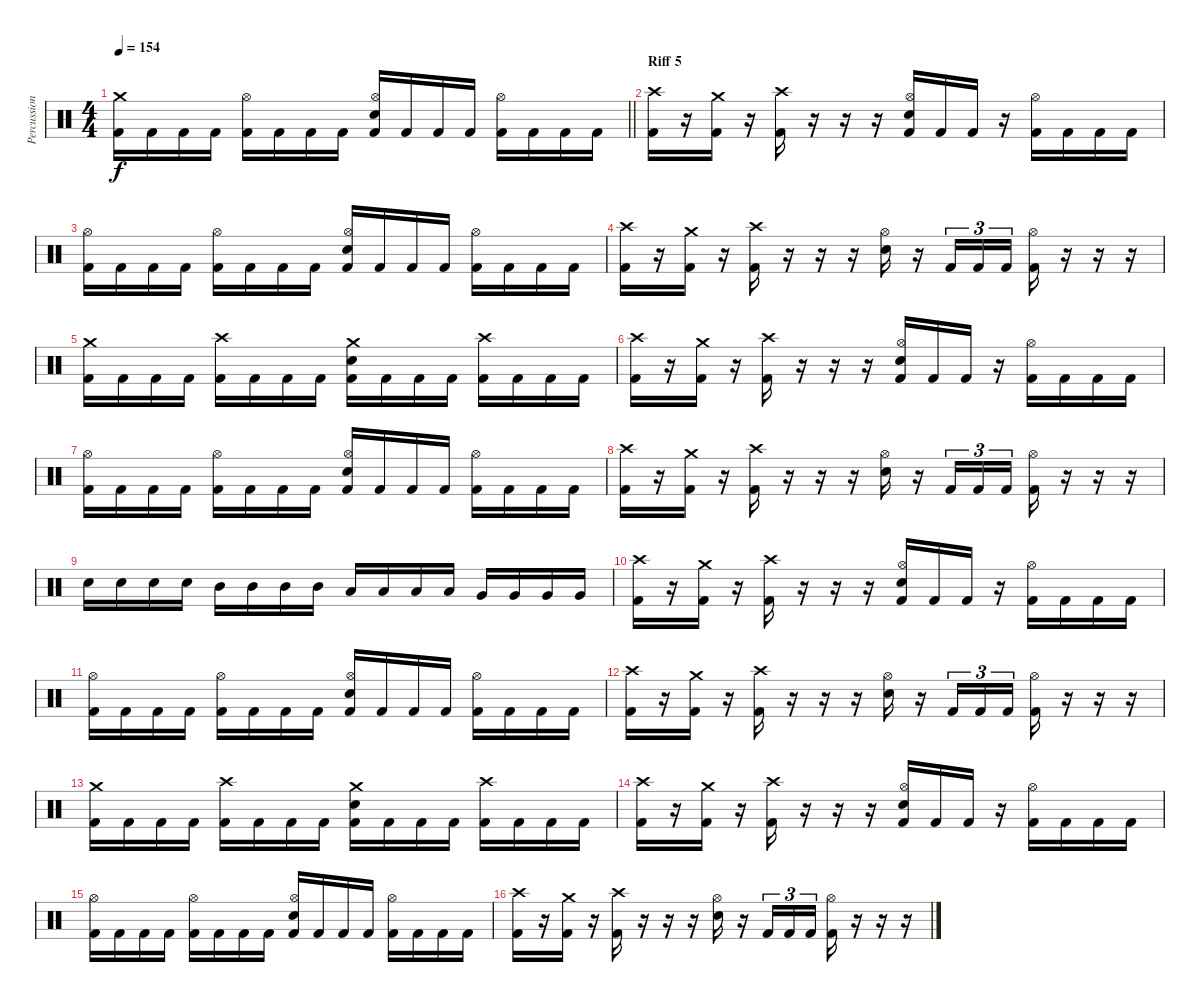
\track ("Percussion" "Percussion") {instrument percussion}
\staff {score}
\articulation defaults
\ts (4 4)
\tempo 154
\clef neutral
\barLineRight lightlight
\ks c
("Crash medium (hit)" "Kick (hit) 2").16{dy f} "Kick (hit) 2".16 "Kick (hit) 2".16 "Kick (hit) 2".16 ("Hi-Hat (open)" "Kick (hit) 2").16 "Kick (hit) 2".16 "Kick (hit) 2".16 "Kick (hit) 2".16 ("Hi-Hat (open)" "Electric Snare (hit)" "Kick (hit) 2").16 "Kick (hit) 2".16 "Kick (hit) 2".16 "Kick (hit) 2".16 ("Hi-Hat (open)" "Kick (hit) 2").16 "Kick (hit) 2".16 "Kick (hit) 2".16 "Kick (hit) 2".16 |
\section ("" "Riff 5")
("Crash high (hit)" "Kick (hit) 2").16 r.16 ("Crash medium (hit)" "Kick (hit) 2").16 r.16 ("Crash high (hit)" "Kick (hit) 2").16 r.16 r.16 r.16 ("Hi-Hat (open)" "Electric Snare (hit)" "Kick (hit) 2").16 "Kick (hit) 2".16 "Kick (hit) 2".16 r.16 ("Hi-Hat (open)" "Kick (hit) 2").16 "Kick (hit) 2".16 "Kick (hit) 2".16 "Kick (hit) 2".16 |
("Hi-Hat (open)" "Kick (hit) 2").16 "Kick (hit) 2".16 "Kick (hit) 2".16 "Kick (hit) 2".16 ("Hi-Hat (open)" "Kick (hit) 2").16 "Kick (hit) 2".16 "Kick (hit) 2".16 "Kick (hit) 2".16 ("Hi-Hat (open)" "Electric Snare (hit)" "Kick (hit) 2").16 "Kick (hit) 2".16 "Kick (hit) 2".16 "Kick (hit) 2".16 ("Hi-Hat (open)" "Kick (hit) 2").16 "Kick (hit) 2".16 "Kick (hit) 2".16 "Kick (hit) 2".16 |
("Crash high (hit)" "Kick (hit) 2").16 r.16 ("Crash medium (hit)" "Kick (hit) 2").16 r.16 ("Crash high (hit)" "Kick (hit) 2").16 r.16 r.16 r.16 ("Hi-Hat (open)" "Electric Snare (hit)").16 r.16 "Kick (hit) 2".16{tu (3 2)} "Kick (hit) 2".16{tu (3 2)} "Kick (hit) 2".16{tu (3 2)} ("Hi-Hat (open)" "Kick (hit) 2").16 r.16 r.16 r.16 |
("Crash medium (hit)" "Kick (hit) 2").16 "Kick (hit) 2".16 "Kick (hit) 2".16 "Kick (hit) 2".16 ("Crash high (hit)" "Kick (hit) 2").16 "Kick (hit) 2".16 "Kick (hit) 2".16 "Kick (hit) 2".16 ("Crash medium (hit)" "Electric Snare (hit)" "Kick (hit) 2").16 "Kick (hit) 2".16 "Kick (hit) 2".16 "Kick (hit) 2".16 ("Crash high (hit)" "Kick (hit) 2").16 "Kick (hit) 2".16 "Kick (hit) 2".16 "Kick (hit) 2".16 |
("Crash high (hit)" "Kick (hit) 2").16 r.16 ("Crash medium (hit)" "Kick (hit) 2").16 r.16 ("Crash high (hit)" "Kick (hit) 2").16 r.16 r.16 r.16 ("Hi-Hat (open)" "Electric Snare (hit)" "Kick (hit) 2").16 "Kick (hit) 2".16 "Kick (hit) 2".16 r.16 ("Hi-Hat (open)" "Kick (hit) 2").16 "Kick (hit) 2".16 "Kick (hit) 2".16 "Kick (hit) 2".16 |
("Hi-Hat (open)" "Kick (hit) 2").16 "Kick (hit) 2".16 "Kick (hit) 2".16 "Kick (hit) 2".16 ("Hi-Hat (open)" "Kick (hit) 2").16 "Kick (hit) 2".16 "Kick (hit) 2".16 "Kick (hit) 2".16 ("Hi-Hat (open)" "Electric Snare (hit)" "Kick (hit) 2").16 "Kick (hit) 2".16 "Kick (hit) 2".16 "Kick (hit) 2".16 ("Hi-Hat (open)" "Kick (hit) 2").16 "Kick (hit) 2".16 "Kick (hit) 2".16 "Kick (hit) 2".16 |
("Crash high (hit)" "Kick (hit) 2").16 r.16 ("Crash medium (hit)" "Kick (hit) 2").16 r.16 ("Crash high (hit)" "Kick (hit) 2").16 r.16 r.16 r.16 ("Hi-Hat (open)" "Electric Snare (hit)").16 r.16 "Kick (hit) 2".16{tu (3 2)} "Kick (hit) 2".16{tu (3 2)} "Kick (hit) 2".16{tu (3 2)} ("Hi-Hat (open)" "Kick (hit) 2").16 r.16 r.16 r.16 |
"Electric Snare (hit)".16 "Electric Snare (hit)".16 "Electric Snare (hit)".16 "Electric Snare (hit)".16 "Mid Tom (hit)".16 "Mid Tom (hit)".16 "Mid Tom (hit)".16 "Mid Tom (hit)".16 "Low Tom (hit)".16 "Low Tom (hit)".16 "Low Tom (hit)".16 "Low Tom (hit)".16 "Very Low Tom (hit)".16 "Very Low Tom (hit)".16 "Very Low Tom (hit)".16 "Very Low Tom (hit)".16 |
("Crash high (hit)" "Kick (hit) 2").16 r.16 ("Crash medium (hit)" "Kick (hit) 2").16 r.16 ("Crash high (hit)" "Kick (hit) 2").16 r.16 r.16 r.16 ("Hi-Hat (open)" "Electric Snare (hit)" "Kick (hit) 2").16 "Kick (hit) 2".16 "Kick (hit) 2".16 r.16 ("Hi-Hat (open)" "Kick (hit) 2").16 "Kick (hit) 2".16 "Kick (hit) 2".16 "Kick (hit) 2".16 |
("Hi-Hat (open)" "Kick (hit) 2").16 "Kick (hit) 2".16 "Kick (hit) 2".16 "Kick (hit) 2".16 ("Hi-Hat (open)" "Kick (hit) 2").16 "Kick (hit) 2".16 "Kick (hit) 2".16 "Kick (hit) 2".16 ("Hi-Hat (open)" "Electric Snare (hit)" "Kick (hit) 2").16 "Kick (hit) 2".16 "Kick (hit) 2".16 "Kick (hit) 2".16 ("Hi-Hat (open)" "Kick (hit) 2").16 "Kick (hit) 2".16 "Kick (hit) 2".16 "Kick (hit) 2".16 |
("Crash high (hit)" "Kick (hit) 2").16 r.16 ("Crash medium (hit)" "Kick (hit) 2").16 r.16 ("Crash high (hit)" "Kick (hit) 2").16 r.16 r.16 r.16 ("Hi-Hat (open)" "Electric Snare (hit)").16 r.16 "Kick (hit) 2".16{tu (3 2)} "Kick (hit) 2".16{tu (3 2)} "Kick (hit) 2".16{tu (3 2)} ("Hi-Hat (open)" "Kick (hit) 2").16 r.16 r.16 r.16 |
("Crash medium (hit)" "Kick (hit) 2").16 "Kick (hit) 2".16 "Kick (hit) 2".16 "Kick (hit) 2".16 ("Crash high (hit)" "Kick (hit) 2").16 "Kick (hit) 2".16 "Kick (hit) 2".16 "Kick (hit) 2".16 ("Crash medium (hit)" "Electric Snare (hit)" "Kick (hit) 2").16 "Kick (hit) 2".16 "Kick (hit) 2".16 "Kick (hit) 2".16 ("Crash high (hit)" "Kick (hit) 2").16 "Kick (hit) 2".16 "Kick (hit) 2".16 "Kick (hit) 2".16 |
("Crash high (hit)" "Kick (hit) 2").16 r.16 ("Crash medium (hit)" "Kick (hit) 2").16 r.16 ("Crash high (hit)" "Kick (hit) 2").16 r.16 r.16 r.16 ("Hi-Hat (open)" "Electric Snare (hit)" "Kick (hit) 2").16 "Kick (hit) 2".16 "Kick (hit) 2".16 r.16 ("Hi-Hat (open)" "Kick (hit) 2").16 "Kick (hit) 2".16 "Kick (hit) 2".16 "Kick (hit) 2".16 |
("Hi-Hat (open)" "Kick (hit) 2").16 "Kick (hit) 2".16 "Kick (hit) 2".16 "Kick (hit) 2".16 ("Hi-Hat (open)" "Kick (hit) 2").16 "Kick (hit) 2".16 "Kick (hit) 2".16 "Kick (hit) 2".16 ("Hi-Hat (open)" "Electric Snare (hit)" "Kick (hit) 2").16 "Kick (hit) 2".16 "Kick (hit) 2".16 "Kick (hit) 2".16 ("Hi-Hat (open)" "Kick (hit) 2").16 "Kick (hit) 2".16 "Kick (hit) 2".16 "Kick (hit) 2".16 |
("Crash high (hit)" "Kick (hit) 2").16 r.16 ("Crash medium (hit)" "Kick (hit) 2").16 r.16 ("Crash high (hit)" "Kick (hit) 2").16 r.16 r.16 r.16 ("Hi-Hat (open)" "Electric Snare (hit)").16 r.16 "Kick (hit) 2".16{tu (3 2)} "Kick (hit) 2".16{tu (3 2)} "Kick (hit) 2".16{tu (3 2)} ("Hi-Hat (open)" "Kick (hit) 2").16 r.16 r.16 r.16
